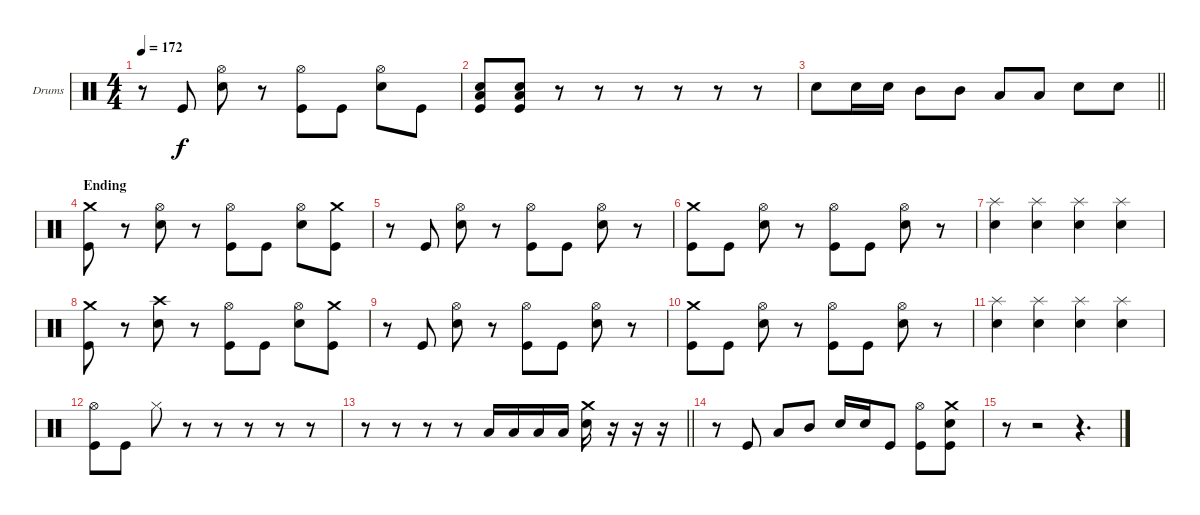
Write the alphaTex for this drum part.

\bracketExtendMode groupsimilarinstruments
\firstSystemTrackNameOrientation horizontal
\otherSystemsTrackNameOrientation horizontal
\track ("Drumkit" "Drums") {instrument percussion}
\staff {score}
\articulation defaults
\ts (4 4)
\tempo 172
\clef neutral
\ks c
r.8{dy f} "Kick (hit)".8 ("Hi-Hat (open)" "Snare (hit) 2").8 r.8 ("Hi-Hat (open)" "Kick (hit)").8 "Kick (hit)".8 ("Hi-Hat (open)" "Snare (hit) 2").8 "Kick (hit)".8 |
("Snare (hit) 2" "Low Tom (hit)" "Kick (hit)").8 ("Snare (hit) 2" "Low Tom (hit)" "Kick (hit)").8 r.8 r.8 r.8 r.8 r.8 r.8 |
\barLineRight lightlight "Snare (hit) 2".8 "Snare (hit) 2".16 "Snare (hit) 2".16 "Mid Tom (hit)".8 "Mid Tom (hit)".8 "Low Tom (hit)".8 "Low Tom (hit)".8 "Snare (hit) 2".8 "Snare (hit) 2".8
|
\section ("" "Ending")
("Crash medium (hit)" "Kick (hit)").8 r.8 ("Hi-Hat (open)" "Snare (hit) 2").8 r.8 ("Hi-Hat (open)" "Kick (hit)").8 "Kick (hit)".8 ("Hi-Hat (open)" "Snare (hit) 2").8 ("Crash medium (hit)" "Kick (hit)").8 |
r.8 "Kick (hit)".8 ("Hi-Hat (open)" "Snare (hit) 2").8 r.8 ("Hi-Hat (open)" "Kick (hit)").8 "Kick (hit)".8 ("Hi-Hat (open)" "Snare (hit) 2").8 r.8 |
("Crash medium (hit)" "Kick (hit)").8 "Kick (hit)".8 ("Hi-Hat (open)" "Snare (hit) 2").8 r.8 ("Hi-Hat (open)" "Kick (hit)").8 "Kick (hit)".8 ("Hi-Hat (open)" "Snare (hit) 2").8 r.8 |
("Splash (hit)" "Snare (hit) 2").4 ("Splash (hit)" "Snare (hit) 2").4 ("Splash (hit)" "Snare (hit) 2").4 ("Splash (hit)" "Snare (hit) 2").4 |
("Crash medium (hit)" "Kick (hit)").8 r.8 ("Crash high (hit)" "Snare (hit) 2").8 r.8 ("Hi-Hat (open)" "Kick (hit)").8 "Kick (hit)".8 ("Hi-Hat (open)" "Snare (hit) 2").8 ("Crash medium (hit)" "Kick (hit)").8 |
r.8 "Kick (hit)".8 ("Hi-Hat (open)" "Snare (hit) 2").8 r.8 ("Hi-Hat (open)" "Kick (hit)").8 "Kick (hit)".8 ("Hi-Hat (open)" "Snare (hit) 2").8 r.8 |
("Crash medium (hit)" "Kick (hit)").8 "Kick (hit)".8 ("Hi-Hat (open)" "Snare (hit) 2").8 r.8 ("Hi-Hat (open)" "Kick (hit)").8 "Kick (hit)".8 ("Hi-Hat (open)" "Snare (hit) 2").8 r.8 |
("Splash (hit)" "Snare (hit) 2").4 ("Splash (hit)" "Snare (hit) 2").4 ("Splash (hit)" "Snare (hit) 2").4 ("Splash (hit)" "Snare (hit) 2").4 |
("Hi-Hat (open)" "Kick (hit)").8 "Kick (hit)".8 "Hi-Hat (closed)".8 r.8 r.8 r.8 r.8 r.8 |
\barLineRight lightlight
r.8 r.8 r.8 r.8 "Low Tom (hit)".16 "Low Tom (hit)".16 "Low Tom (hit)".16 "Low Tom (hit)".16 ("Crash medium (hit)" "Snare (hit) 2").16 r.16 r.16 r.16 |
r.8 "Kick (hit)".8 "Low Tom (hit)".8 "Mid Tom (hit)".8 "Snare (hit) 2".16 "Snare (hit) 2".16 "Kick (hit)".8 ("Hi-Hat (open)" "Kick (hit)").8 ("Crash medium (hit)" "Snare (hit) 2" "Kick (hit)").8 |
r.8 r.2 r.4{d}
